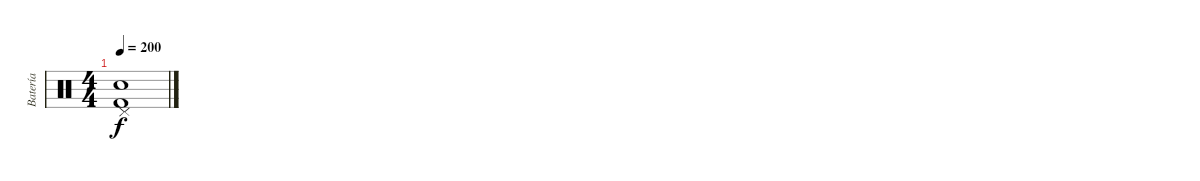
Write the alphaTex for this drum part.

\track ("Batería" "Batería") {instrument percussion}
\staff {score}
\articulation defaults
\ts (4 4)
\tempo 200
\clef neutral
\ks c
("Electric Snare (hit)"{t} "Pedal Hi-Hat (hit)"{t} "Kick (hit) 2"{t}).1{dy f}
